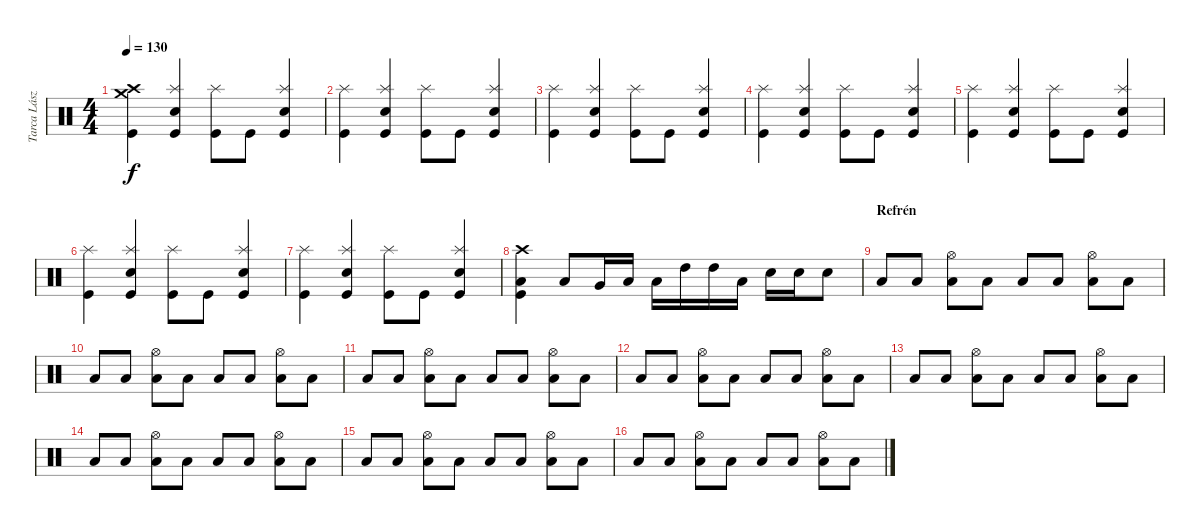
\track ("Tarca László" "Tarca Lász") {instrument percussion}
\staff {score}
\articulation defaults
\ts (4 4)
\tempo 130
\clef neutral
\ks c
("Crash high (hit)" "Crash medium (hit)" "Kick (hit)").4{dy f} ("Splash (hit)" "Snare (hit) 2" "Kick (hit)").4 ("Splash (hit)" "Kick (hit)").8 "Kick (hit)".8 ("Splash (hit)" "Snare (hit) 2" "Kick (hit)").4 |
("Splash (hit)" "Kick (hit)").4 ("Splash (hit)" "Snare (hit) 2" "Kick (hit)").4 ("Splash (hit)" "Kick (hit)").8 "Kick (hit)".8 ("Splash (hit)" "Snare (hit) 2" "Kick (hit)").4 |
("Splash (hit)" "Kick (hit)").4 ("Splash (hit)" "Snare (hit) 2" "Kick (hit)").4 ("Splash (hit)" "Kick (hit)").8 "Kick (hit)".8 ("Splash (hit)" "Snare (hit) 2" "Kick (hit)").4 |
("Splash (hit)" "Kick (hit)").4 ("Splash (hit)" "Snare (hit) 2" "Kick (hit)").4 ("Splash (hit)" "Kick (hit)").8 "Kick (hit)".8 ("Splash (hit)" "Snare (hit) 2" "Kick (hit)").4 |
("Splash (hit)" "Kick (hit)").4 ("Splash (hit)" "Snare (hit) 2" "Kick (hit)").4 ("Splash (hit)" "Kick (hit)").8 "Kick (hit)".8 ("Splash (hit)" "Snare (hit) 2" "Kick (hit)").4 |
("Splash (hit)" "Kick (hit)").4 ("Splash (hit)" "Snare (hit) 2" "Kick (hit)").4 ("Splash (hit)" "Kick (hit)").8 "Kick (hit)".8 ("Splash (hit)" "Snare (hit) 2" "Kick (hit)").4 |
("Splash (hit)" "Kick (hit)").4 ("Splash (hit)" "Snare (hit) 2" "Kick (hit)").4 ("Splash (hit)" "Kick (hit)").8 "Kick (hit)".8 ("Splash (hit)" "Snare (hit) 2" "Kick (hit)").4 |
("Crash high (hit)" "Low Tom (hit)" "Kick (hit)").4 "Low Floor Tom (hit)".8 "Very Low Tom (hit)".16 "Low Tom (hit)".16 "Low Tom (hit)".16 "High Tom (hit)".16 "High Tom (hit)".16 "Low Tom (hit)".16 "Snare (hit) 2".16 "Snare (hit) 2".16 "Snare (hit) 2".8 |
\section ("" "Refrén")
"Low Tom (hit)".8 "Low Tom (hit)".8 ("Low Tom (hit)" "Hi-Hat (open)").8 "Low Tom (hit)".8 "Low Tom (hit)".8 "Low Tom (hit)".8 ("Low Tom (hit)" "Hi-Hat (open)").8 "Low Tom (hit)".8 |
"Low Tom (hit)".8 "Low Tom (hit)".8 ("Low Tom (hit)" "Hi-Hat (open)").8 "Low Tom (hit)".8 "Low Tom (hit)".8 "Low Tom (hit)".8 ("Low Tom (hit)" "Hi-Hat (open)").8 "Low Tom (hit)".8 |
"Low Tom (hit)".8 "Low Tom (hit)".8 ("Low Tom (hit)" "Hi-Hat (open)").8 "Low Tom (hit)".8 "Low Tom (hit)".8 "Low Tom (hit)".8 ("Low Tom (hit)" "Hi-Hat (open)").8 "Low Tom (hit)".8 |
"Low Tom (hit)".8 "Low Tom (hit)".8 ("Low Tom (hit)" "Hi-Hat (open)").8 "Low Tom (hit)".8 "Low Tom (hit)".8 "Low Tom (hit)".8 ("Low Tom (hit)" "Hi-Hat (open)").8 "Low Tom (hit)".8 |
"Low Tom (hit)".8 "Low Tom (hit)".8 ("Low Tom (hit)" "Hi-Hat (open)").8 "Low Tom (hit)".8 "Low Tom (hit)".8 "Low Tom (hit)".8 ("Low Tom (hit)" "Hi-Hat (open)").8 "Low Tom (hit)".8 |
"Low Tom (hit)".8 "Low Tom (hit)".8 ("Low Tom (hit)" "Hi-Hat (open)").8 "Low Tom (hit)".8 "Low Tom (hit)".8 "Low Tom (hit)".8 ("Low Tom (hit)" "Hi-Hat (open)").8 "Low Tom (hit)".8 |
"Low Tom (hit)".8 "Low Tom (hit)".8 ("Low Tom (hit)" "Hi-Hat (open)").8 "Low Tom (hit)".8 "Low Tom (hit)".8 "Low Tom (hit)".8 ("Low Tom (hit)" "Hi-Hat (open)").8 "Low Tom (hit)".8 |
"Low Tom (hit)".8 "Low Tom (hit)".8 ("Low Tom (hit)" "Hi-Hat (open)").8 "Low Tom (hit)".8 "Low Tom (hit)".8 "Low Tom (hit)".8 ("Low Tom (hit)" "Hi-Hat (open)").8 "Low Tom (hit)".8
